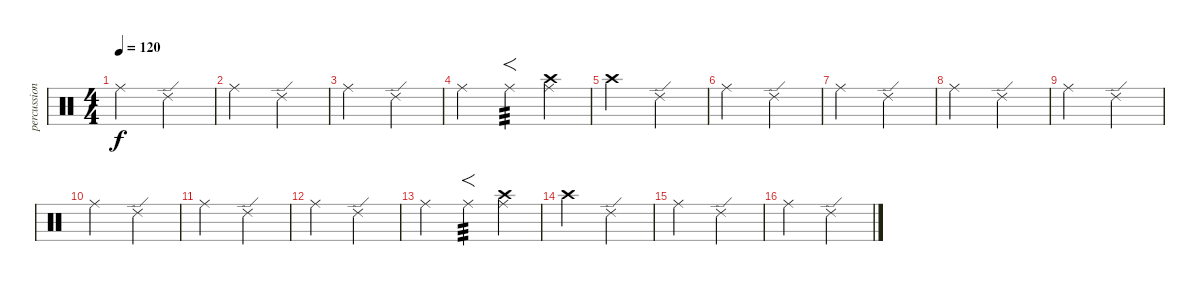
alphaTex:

\track ("percussion" "percussion") {instrument percussion}
\staff {score}
\articulation defaults
\ts (4 4)
\tempo 120
\clef neutral
\ks c "Ride (middle)".2{dy f} "Ride (edge) 2".2
|
"Ride (middle)".2 "Ride (edge) 2".2 |
"Ride (middle)".2 "Ride (edge) 2".2 |
"Ride (middle)".2 "Ride (middle)".4{f tp 3} ("Ride (middle)" "Crash high (hit)").4 |
"Crash high (hit)".2 "Ride (edge) 2".2 |
"Ride (middle)".2 "Ride (edge) 2".2 |
"Ride (middle)".2 "Ride (edge) 2".2 |
"Ride (middle)".2 "Ride (edge) 2".2 |
"Ride (middle)".2 "Ride (edge) 2".2 |
"Ride (middle)".2 "Ride (edge) 2".2 |
"Ride (middle)".2 "Ride (edge) 2".2 |
"Ride (middle)".2 "Ride (edge) 2".2 |
"Ride (middle)".2 "Ride (middle)".4{f tp 3} ("Ride (middle)" "Crash high (hit)").4 |
"Crash high (hit)".2 "Ride (edge) 2".2 |
"Ride (middle)".2 "Ride (edge) 2".2 |
"Ride (middle)".2 "Ride (edge) 2".2
